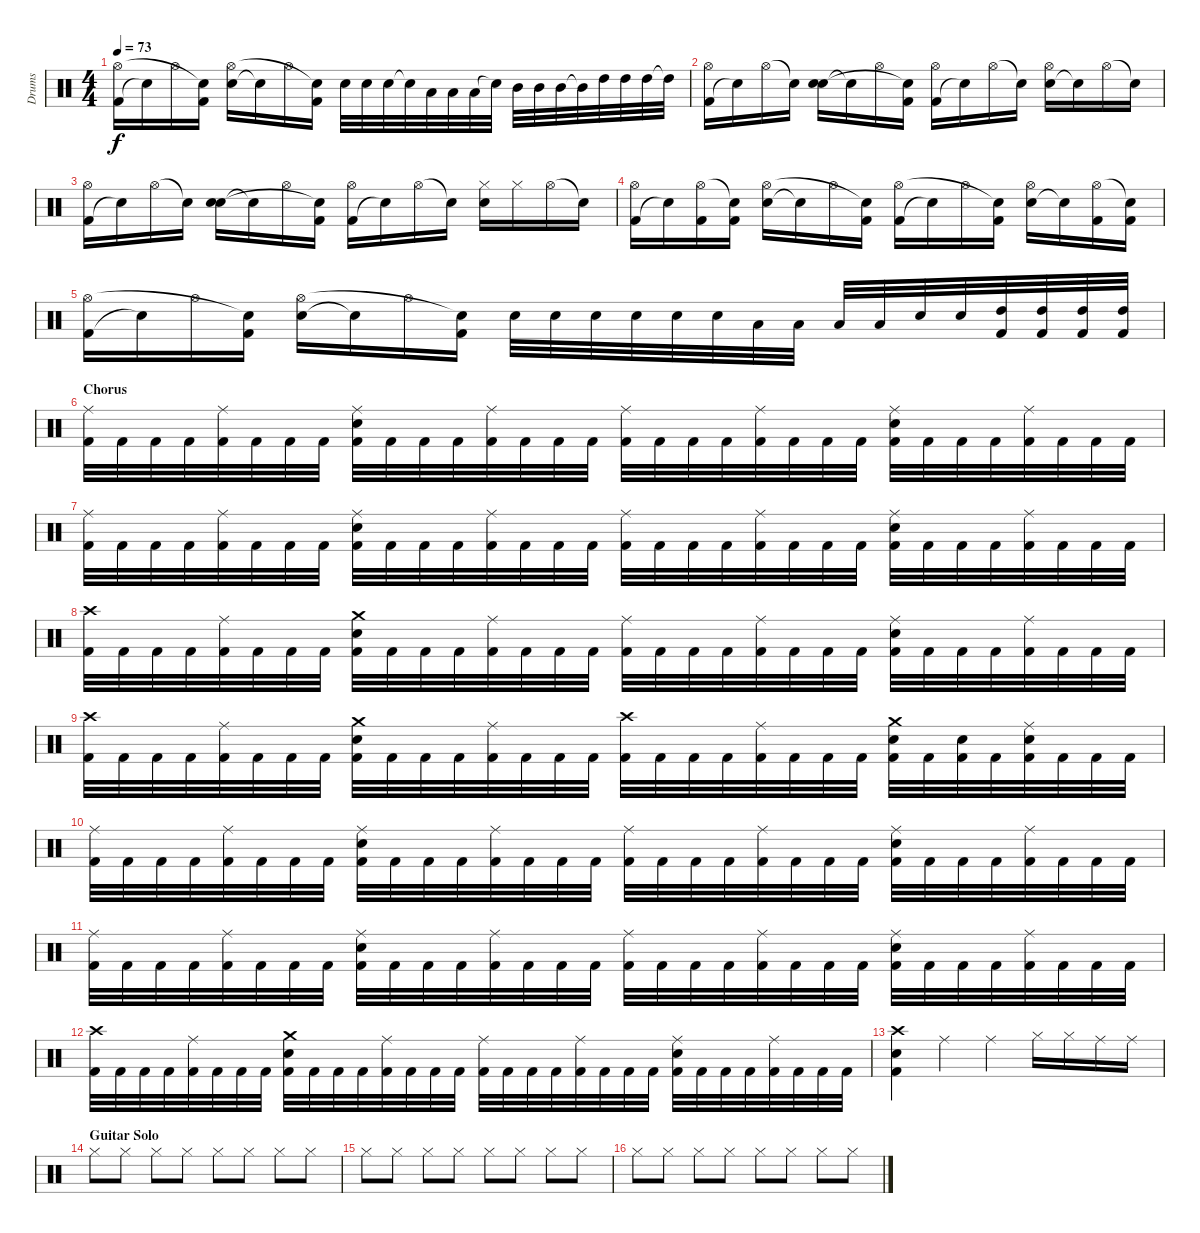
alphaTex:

\track ("Drums" "Drums") {instrument percussion}
\staff {score}
\articulation defaults
\ts (4 4)
\tempo 73
\clef neutral
\ks c
("Kick (hit) 2" "Hi-Hat (open)").16{dy f} "Snare (hit)"{t}.16 "Hi-Hat (open)".16 ("Kick (hit) 2" "Snare (hit)"{t}).16 ("Snare (hit) 2" "Hi-Hat (open)").16 "Snare (hit)"{t}.16 "Hi-Hat (open)".16 ("Kick (hit) 2" "Snare (hit)"{t}).16 "Snare (hit) 2".32 "Snare (hit) 2".32 "Snare (hit) 2".32 "Snare (hit)"{t}.32 "Low Tom (hit)".32 "Low Tom (hit)".32 "Low Tom (hit)".32 "Snare (hit)"{t}.32 "Mid Tom (hit)".32 "Mid Tom (hit)".32 "Mid Tom (hit)".32 "Mid Tom (hit)"{t}.32 "High Tom (hit)".32 "High Tom (hit)".32 "High Tom (hit)".32 "High Tom (hit)"{t}.32 |
("Kick (hit) 2" "Hi-Hat (open)").16 "Snare (hit)"{t}.16 "Hi-Hat (open)".16 "Snare (hit)"{t}.16 ("Snare (hit) 2" "Snare (hit) 2").16 "Snare (hit)"{t}.16 "Hi-Hat (open)".16 ("Kick (hit) 2" "Snare (hit)"{t}).16 ("Kick (hit) 2" "Hi-Hat (open)").16 "Snare (hit)"{t}.16 "Hi-Hat (open)".16 "Snare (hit)"{t}.16 ("Snare (hit) 2" "Hi-Hat (open)").16 "Snare (hit)"{t}.16 "Hi-Hat (open)".16 "Snare (hit)"{t}.16 |
("Kick (hit) 2" "Hi-Hat (open)").16 "Snare (hit)"{t}.16 "Hi-Hat (open)".16 "Snare (hit)"{t}.16 ("Snare (hit) 2" "Snare (hit) 2").16 "Snare (hit)"{t}.16 "Hi-Hat (open)".16 ("Kick (hit) 2" "Snare (hit)"{t}).16 ("Kick (hit) 2" "Hi-Hat (open)").16 "Snare (hit)"{t}.16 "Hi-Hat (open)".16 "Snare (hit)"{t}.16 ("Snare (hit) 2" "Hi-Hat (closed)").16 "Hi-Hat (closed)".16 "Hi-Hat (open)".16 "Snare (hit)"{t}.16 |
("Kick (hit) 2" "Hi-Hat (open)").16 "Snare (hit)"{t}.16 ("Kick (hit) 2" "Hi-Hat (open)").16 ("Kick (hit) 2" "Snare (hit)"{t}).16 ("Snare (hit) 2" "Hi-Hat (open)").16 "Snare (hit)"{t}.16 "Hi-Hat (open)".16 ("Kick (hit) 2" "Snare (hit)"{t}).16 ("Kick (hit) 2" "Hi-Hat (open)").16 "Snare (hit)"{t}.16 "Hi-Hat (open)".16 ("Kick (hit) 2" "Snare (hit)"{t}).16 ("Snare (hit) 2" "Hi-Hat (open)").16 "Snare (hit)"{t}.16 ("Kick (hit) 2" "Hi-Hat (open)").16 ("Kick (hit) 2" "Snare (hit)"{t}).16 |
("Kick (hit) 2" "Hi-Hat (open)").16 "Snare (hit)"{t}.16 "Hi-Hat (open)".16 ("Kick (hit) 2" "Snare (hit)"{t}).16 ("Snare (hit) 2" "Hi-Hat (open)").16 "Snare (hit)"{t}.16 "Hi-Hat (open)".16 ("Kick (hit) 2" "Snare (hit)"{t}).16 "Snare (hit) 2".32 "Snare (hit) 2".32 "Snare (hit) 2".32 "Snare (hit) 2".32 "Snare (hit) 2".32 "Snare (hit) 2".32 "Low Tom (hit)".32 "Low Tom (hit)".32 "Low Tom (hit)".32 "Low Tom (hit)".32 "Snare (hit) 2".32 "Snare (hit) 2".32 ("Kick (hit) 2" "High Tom (hit)").32 ("Kick (hit) 2" "High Tom (hit)").32 ("Kick (hit) 2" "High Tom (hit)").32 ("Kick (hit) 2" "High Tom (hit)").32 |
\section ("" "Chorus")
("Kick (hit) 2" "Ride (middle)").32 "Kick (hit) 2".32 "Kick (hit) 2".32 "Kick (hit) 2".32 ("Kick (hit) 2" "Ride (middle)").32 "Kick (hit) 2".32 "Kick (hit) 2".32 "Kick (hit) 2".32 ("Kick (hit) 2" "Snare (hit) 2" "Ride (middle)").32 "Kick (hit) 2".32 "Kick (hit) 2".32 "Kick (hit) 2".32 ("Kick (hit) 2" "Ride (middle)").32 "Kick (hit) 2".32 "Kick (hit) 2".32 "Kick (hit) 2".32 ("Kick (hit) 2" "Ride (middle)").32 "Kick (hit) 2".32 "Kick (hit) 2".32 "Kick (hit) 2".32 ("Kick (hit) 2" "Ride (middle)").32 "Kick (hit) 2".32 "Kick (hit) 2".32 "Kick (hit) 2".32 ("Kick (hit) 2" "Snare (hit) 2" "Ride (middle)").32 "Kick (hit) 2".32 "Kick (hit) 2".32 "Kick (hit) 2".32 ("Kick (hit) 2" "Ride (middle)").32 "Kick (hit) 2".32 "Kick (hit) 2".32 "Kick (hit) 2".32 |
("Kick (hit) 2" "Ride (middle)").32 "Kick (hit) 2".32 "Kick (hit) 2".32 "Kick (hit) 2".32 ("Kick (hit) 2" "Ride (middle)").32 "Kick (hit) 2".32 "Kick (hit) 2".32 "Kick (hit) 2".32 ("Kick (hit) 2" "Snare (hit) 2" "Ride (middle)").32 "Kick (hit) 2".32 "Kick (hit) 2".32 "Kick (hit) 2".32 ("Kick (hit) 2" "Ride (middle)").32 "Kick (hit) 2".32 "Kick (hit) 2".32 "Kick (hit) 2".32 ("Kick (hit) 2" "Ride (middle)").32 "Kick (hit) 2".32 "Kick (hit) 2".32 "Kick (hit) 2".32 ("Kick (hit) 2" "Ride (middle)").32 "Kick (hit) 2".32 "Kick (hit) 2".32 "Kick (hit) 2".32 ("Kick (hit) 2" "Snare (hit) 2" "Ride (middle)").32 "Kick (hit) 2".32 "Kick (hit) 2".32 "Kick (hit) 2".32 ("Kick (hit) 2" "Ride (middle)").32 "Kick (hit) 2".32 "Kick (hit) 2".32 "Kick (hit) 2".32 |
("Kick (hit) 2" "Crash high (hit)").32 "Kick (hit) 2".32 "Kick (hit) 2".32 "Kick (hit) 2".32 ("Kick (hit) 2" "Ride (middle)").32 "Kick (hit) 2".32 "Kick (hit) 2".32 "Kick (hit) 2".32 ("Kick (hit) 2" "Snare (hit) 2" "Crash medium (hit)").32 "Kick (hit) 2".32 "Kick (hit) 2".32 "Kick (hit) 2".32 ("Kick (hit) 2" "Ride (middle)").32 "Kick (hit) 2".32 "Kick (hit) 2".32 "Kick (hit) 2".32 ("Kick (hit) 2" "Ride (middle)").32 "Kick (hit) 2".32 "Kick (hit) 2".32 "Kick (hit) 2".32 ("Kick (hit) 2" "Ride (middle)").32 "Kick (hit) 2".32 "Kick (hit) 2".32 "Kick (hit) 2".32 ("Kick (hit) 2" "Snare (hit) 2" "Ride (middle)").32 "Kick (hit) 2".32 "Kick (hit) 2".32 "Kick (hit) 2".32 ("Kick (hit) 2" "Ride (middle)").32 "Kick (hit) 2".32 "Kick (hit) 2".32 "Kick (hit) 2".32 |
("Kick (hit) 2" "Crash high (hit)").32 "Kick (hit) 2".32 "Kick (hit) 2".32 "Kick (hit) 2".32 ("Kick (hit) 2" "Ride (middle)").32 "Kick (hit) 2".32 "Kick (hit) 2".32 "Kick (hit) 2".32 ("Kick (hit) 2" "Snare (hit) 2" "Crash medium (hit)").32 "Kick (hit) 2".32 "Kick (hit) 2".32 "Kick (hit) 2".32 ("Kick (hit) 2" "Ride (middle)").32 "Kick (hit) 2".32 "Kick (hit) 2".32 "Kick (hit) 2".32 ("Kick (hit) 2" "Crash high (hit)").32 "Kick (hit) 2".32 "Kick (hit) 2".32 "Kick (hit) 2".32 ("Kick (hit) 2" "Ride (middle)").32 "Kick (hit) 2".32 "Kick (hit) 2".32 "Kick (hit) 2".32 ("Kick (hit) 2" "Snare (hit) 2" "Crash medium (hit)").32 "Kick (hit) 2".32 ("Kick (hit) 2" "Snare (hit) 2").32 "Kick (hit) 2".32 ("Kick (hit) 2" "Snare (hit) 2" "Ride (middle)").32 "Kick (hit) 2".32 "Kick (hit) 2".32 "Kick (hit) 2".32 |
("Kick (hit) 2" "Ride (middle)").32 "Kick (hit) 2".32 "Kick (hit) 2".32 "Kick (hit) 2".32 ("Kick (hit) 2" "Ride (middle)").32 "Kick (hit) 2".32 "Kick (hit) 2".32 "Kick (hit) 2".32 ("Kick (hit) 2" "Snare (hit) 2" "Ride (middle)").32 "Kick (hit) 2".32 "Kick (hit) 2".32 "Kick (hit) 2".32 ("Kick (hit) 2" "Ride (middle)").32 "Kick (hit) 2".32 "Kick (hit) 2".32 "Kick (hit) 2".32 ("Kick (hit) 2" "Ride (middle)").32 "Kick (hit) 2".32 "Kick (hit) 2".32 "Kick (hit) 2".32 ("Kick (hit) 2" "Ride (middle)").32 "Kick (hit) 2".32 "Kick (hit) 2".32 "Kick (hit) 2".32 ("Kick (hit) 2" "Snare (hit) 2" "Ride (middle)").32 "Kick (hit) 2".32 "Kick (hit) 2".32 "Kick (hit) 2".32 ("Kick (hit) 2" "Ride (middle)").32 "Kick (hit) 2".32 "Kick (hit) 2".32 "Kick (hit) 2".32 |
("Kick (hit) 2" "Ride (middle)").32 "Kick (hit) 2".32 "Kick (hit) 2".32 "Kick (hit) 2".32 ("Kick (hit) 2" "Ride (middle)").32 "Kick (hit) 2".32 "Kick (hit) 2".32 "Kick (hit) 2".32 ("Kick (hit) 2" "Snare (hit) 2" "Ride (middle)").32 "Kick (hit) 2".32 "Kick (hit) 2".32 "Kick (hit) 2".32 ("Kick (hit) 2" "Ride (middle)").32 "Kick (hit) 2".32 "Kick (hit) 2".32 "Kick (hit) 2".32 ("Kick (hit) 2" "Ride (middle)").32 "Kick (hit) 2".32 "Kick (hit) 2".32 "Kick (hit) 2".32 ("Kick (hit) 2" "Ride (middle)").32 "Kick (hit) 2".32 "Kick (hit) 2".32 "Kick (hit) 2".32 ("Kick (hit) 2" "Snare (hit) 2" "Ride (middle)").32 "Kick (hit) 2".32 "Kick (hit) 2".32 "Kick (hit) 2".32 ("Kick (hit) 2" "Ride (middle)").32 "Kick (hit) 2".32 "Kick (hit) 2".32 "Kick (hit) 2".32 |
("Kick (hit) 2" "Crash high (hit)").32 "Kick (hit) 2".32 "Kick (hit) 2".32 "Kick (hit) 2".32 ("Kick (hit) 2" "Ride (middle)").32 "Kick (hit) 2".32 "Kick (hit) 2".32 "Kick (hit) 2".32 ("Kick (hit) 2" "Snare (hit) 2" "Crash medium (hit)").32 "Kick (hit) 2".32 "Kick (hit) 2".32 "Kick (hit) 2".32 ("Kick (hit) 2" "Ride (middle)").32 "Kick (hit) 2".32 "Kick (hit) 2".32 "Kick (hit) 2".32 ("Kick (hit) 2" "Ride (middle)").32 "Kick (hit) 2".32 "Kick (hit) 2".32 "Kick (hit) 2".32 ("Kick (hit) 2" "Ride (middle)").32 "Kick (hit) 2".32 "Kick (hit) 2".32 "Kick (hit) 2".32 ("Kick (hit) 2" "Snare (hit) 2" "Ride (middle)").32 "Kick (hit) 2".32 "Kick (hit) 2".32 "Kick (hit) 2".32 ("Kick (hit) 2" "Ride (middle)").32 "Kick (hit) 2".32 "Kick (hit) 2".32 "Kick (hit) 2".32 |
("Kick (hit) 2" "Snare (hit) 2" "Crash high (hit)").4 "Ride (middle)".4 "Ride (middle)".4 "Hi-Hat (closed)".16 "Hi-Hat (closed)".16 "Ride (middle)".16 "Ride (middle)".16 |
\section ("" "Guitar Solo")
"Hi-Hat (closed)".8 "Hi-Hat (closed)".8 "Hi-Hat (closed)".8 "Hi-Hat (closed)".8 "Hi-Hat (closed)".8 "Hi-Hat (closed)".8 "Hi-Hat (closed)".8 "Hi-Hat (closed)".8 |
"Hi-Hat (closed)".8 "Hi-Hat (closed)".8 "Hi-Hat (closed)".8 "Hi-Hat (closed)".8 "Hi-Hat (closed)".8 "Hi-Hat (closed)".8 "Hi-Hat (closed)".8 "Hi-Hat (closed)".8 |
"Hi-Hat (closed)".8 "Hi-Hat (closed)".8 "Hi-Hat (closed)".8 "Hi-Hat (closed)".8 "Hi-Hat (closed)".8 "Hi-Hat (closed)".8 "Hi-Hat (closed)".8 "Hi-Hat (closed)".8
